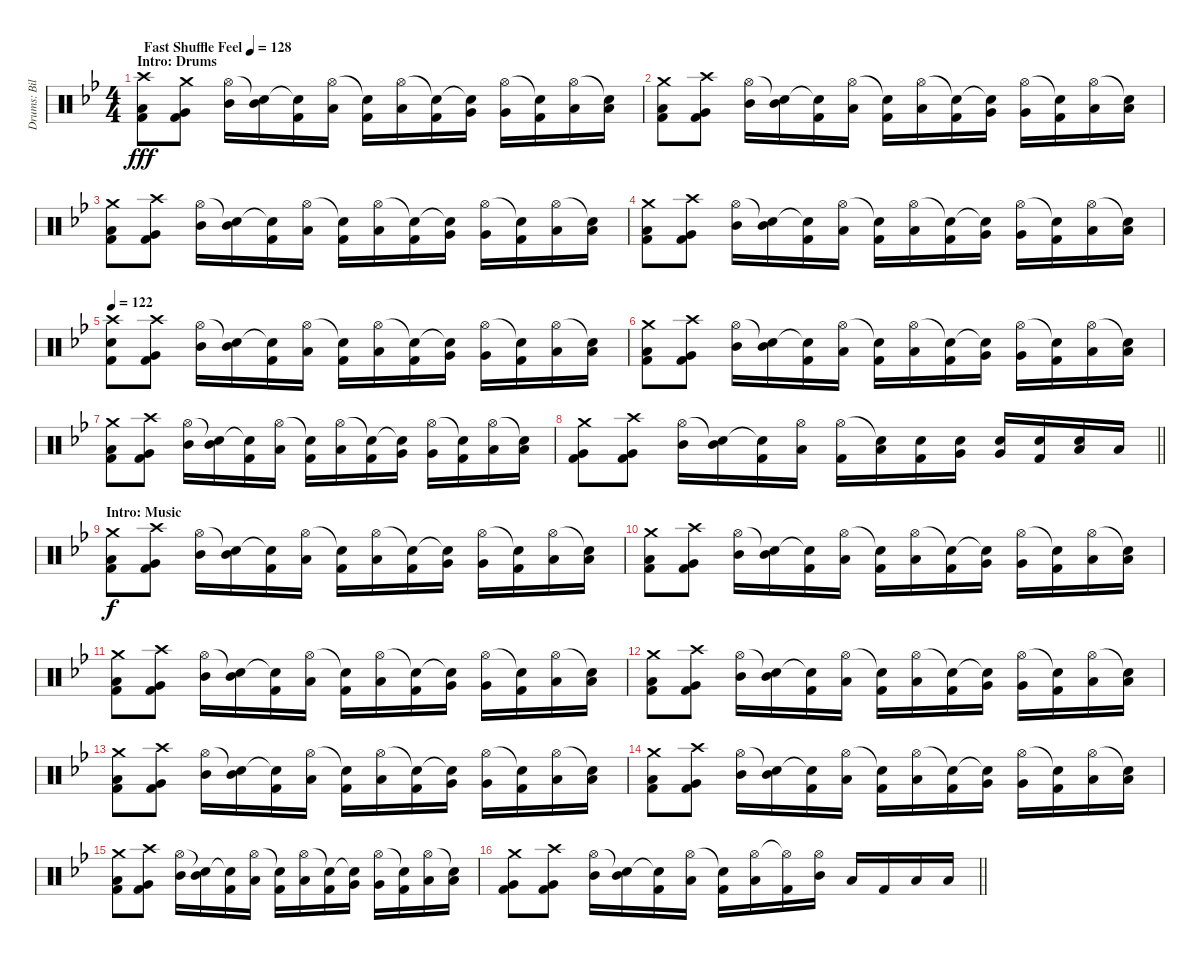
\track ("Drums: Bill" "Drums: Bil") {instrument percussion}
\staff {score}
\articulation defaults
\ts (4 4)
\section ("" "Intro: Drums")
\tempo (128 "Fast Shuffle Feel")
\clef neutral
\ks bb
("Crash high (hit)" "Low Tom (hit)" "Kick (hit) 2").8{dy fff} ("Crash medium (hit)" "Very Low Tom (hit)" "Kick (hit) 2").8 ("Hi-Hat (open)" "Mid Tom (hit)").16 ("Snare (hit)"{t} "Mid Tom (hit)").16 ("Snare (hit)"{t} "Kick (hit) 2").16 ("Hi-Hat (open)" "Low Tom (hit)").16 ("Snare (hit)"{t} "Kick (hit) 2").16 ("Hi-Hat (open)" "Low Tom (hit)").16 ("Snare (hit)"{t} "Kick (hit) 2").16 ("Snare (hit)"{t} "Very Low Tom (hit)").16 ("Hi-Hat (open)" "Very Low Tom (hit)").16 ("Snare (hit)"{t} "Kick (hit) 2").16 ("Hi-Hat (open)" "Low Floor Tom (hit)").16 ("Snare (hit)"{t} "Low Floor Tom (hit)").16 |
("Crash medium (hit)" "Low Tom (hit)" "Kick (hit) 2").8 ("Crash high (hit)" "Very Low Tom (hit)" "Kick (hit) 2").8 ("Hi-Hat (open)" "Mid Tom (hit)").16 ("Snare (hit)"{t} "Mid Tom (hit)").16 ("Snare (hit)"{t} "Kick (hit) 2").16 ("Hi-Hat (open)" "Low Tom (hit)").16 ("Snare (hit)"{t} "Kick (hit) 2").16 ("Hi-Hat (open)" "Low Tom (hit)").16 ("Snare (hit)"{t} "Kick (hit) 2").16 ("Snare (hit)"{t} "Very Low Tom (hit)").16 ("Hi-Hat (open)" "Very Low Tom (hit)").16 ("Snare (hit)"{t} "Kick (hit) 2").16 ("Hi-Hat (open)" "Low Floor Tom (hit)").16 ("Snare (hit)"{t} "Low Floor Tom (hit)").16 |
("Crash medium (hit)" "Low Tom (hit)" "Kick (hit) 2").8 ("Crash high (hit)" "Very Low Tom (hit)" "Kick (hit) 2").8 ("Hi-Hat (open)" "Mid Tom (hit)").16 ("Snare (hit)"{t} "Mid Tom (hit)").16 ("Snare (hit)"{t} "Kick (hit) 2").16 ("Hi-Hat (open)" "Low Tom (hit)").16 ("Snare (hit)"{t} "Kick (hit) 2").16 ("Hi-Hat (open)" "Low Tom (hit)").16 ("Snare (hit)"{t} "Kick (hit) 2").16 ("Snare (hit)"{t} "Very Low Tom (hit)").16 ("Hi-Hat (open)" "Very Low Tom (hit)").16 ("Snare (hit)"{t} "Kick (hit) 2").16 ("Hi-Hat (open)" "Low Floor Tom (hit)").16 ("Snare (hit)"{t} "Low Floor Tom (hit)").16 |
("Crash medium (hit)" "Low Tom (hit)" "Kick (hit) 2").8 ("Crash high (hit)" "Very Low Tom (hit)" "Kick (hit) 2").8 ("Hi-Hat (open)" "Mid Tom (hit)").16 ("Snare (hit)"{t} "Mid Tom (hit)").16 ("Snare (hit)"{t} "Kick (hit) 2").16 ("Hi-Hat (open)" "Low Tom (hit)").16 ("Snare (hit)"{t} "Kick (hit) 2").16 ("Hi-Hat (open)" "Low Tom (hit)").16 ("Snare (hit)"{t} "Kick (hit) 2").16 ("Snare (hit)"{t} "Very Low Tom (hit)").16 ("Hi-Hat (open)" "Very Low Tom (hit)").16 ("Snare (hit)"{t} "Kick (hit) 2").16 ("Hi-Hat (open)" "Low Floor Tom (hit)").16 ("Snare (hit)"{t} "Low Floor Tom (hit)").16 |
\tempo 122
("Crash high (hit)" "Electric Snare (hit)" "Kick (hit) 2").8 ("Crash high (hit)" "Very Low Tom (hit)" "Kick (hit) 2").8 ("Hi-Hat (open)" "Mid Tom (hit)").16 ("Snare (hit)"{t} "Mid Tom (hit)").16 ("Snare (hit)"{t} "Kick (hit) 2").16 ("Hi-Hat (open)" "Low Tom (hit)").16 ("Snare (hit)"{t} "Kick (hit) 2").16 ("Hi-Hat (open)" "Low Tom (hit)").16 ("Snare (hit)"{t} "Kick (hit) 2").16 ("Snare (hit)"{t} "Very Low Tom (hit)").16 ("Hi-Hat (open)" "Very Low Tom (hit)").16 ("Snare (hit)"{t} "Kick (hit) 2").16 ("Hi-Hat (open)" "Low Floor Tom (hit)").16 ("Snare (hit)"{t} "Low Floor Tom (hit)").16 |
("Crash medium (hit)" "Low Tom (hit)" "Kick (hit) 2").8 ("Crash high (hit)" "Very Low Tom (hit)" "Kick (hit) 2").8 ("Hi-Hat (open)" "Mid Tom (hit)").16 ("Snare (hit)"{t} "Mid Tom (hit)").16 ("Snare (hit)"{t} "Kick (hit) 2").16 ("Hi-Hat (open)" "Low Tom (hit)").16 ("Snare (hit)"{t} "Kick (hit) 2").16 ("Hi-Hat (open)" "Low Tom (hit)").16 ("Snare (hit)"{t} "Kick (hit) 2").16 ("Snare (hit)"{t} "Very Low Tom (hit)").16 ("Hi-Hat (open)" "Very Low Tom (hit)").16 ("Snare (hit)"{t} "Kick (hit) 2").16 ("Hi-Hat (open)" "Low Floor Tom (hit)").16 ("Snare (hit)"{t} "Low Floor Tom (hit)").16 |
("Crash medium (hit)" "Low Tom (hit)" "Kick (hit) 2").8 ("Crash high (hit)" "Very Low Tom (hit)" "Kick (hit) 2").8 ("Hi-Hat (open)" "Mid Tom (hit)").16 ("Snare (hit)"{t} "Mid Tom (hit)").16 ("Snare (hit)"{t} "Kick (hit) 2").16 ("Hi-Hat (open)" "Low Tom (hit)").16 ("Snare (hit)"{t} "Kick (hit) 2").16 ("Hi-Hat (open)" "Low Tom (hit)").16 ("Snare (hit)"{t} "Kick (hit) 2").16 ("Snare (hit)"{t} "Very Low Tom (hit)").16 ("Hi-Hat (open)" "Very Low Tom (hit)").16 ("Snare (hit)"{t} "Kick (hit) 2").16 ("Hi-Hat (open)" "Low Floor Tom (hit)").16 ("Snare (hit)"{t} "Low Floor Tom (hit)").16 |
\barLineRight lightlight
("Crash medium (hit)" "Very Low Tom (hit)" "Kick (hit) 2").8 ("Crash high (hit)" "Very Low Tom (hit)" "Kick (hit) 2").8 ("Hi-Hat (open)" "Mid Tom (hit)").16 ("Snare (hit)"{t} "Mid Tom (hit)").16 ("Snare (hit)"{t} "Kick (hit) 2").16 ("Hi-Hat (open)" "Low Tom (hit)").16 ("Hi-Hat (open)" "Kick (hit) 2").16 ("Snare (hit)"{t} "Low Tom (hit)").16 ("Electric Snare (hit)" "Kick (hit) 2").16 ("Electric Snare (hit)" "Very Low Tom (hit)").16 ("Electric Snare (hit)" "Very Low Tom (hit)").16 ("Electric Snare (hit)" "Kick (hit) 2").16 ("Electric Snare (hit)" "Low Floor Tom (hit)").16 "Low Floor Tom (hit)".16 |
\section ("" "Intro: Music")
("Crash medium (hit)" "Low Tom (hit)" "Kick (hit) 2").8{dy f} ("Crash high (hit)" "Very Low Tom (hit)" "Kick (hit) 2").8 ("Hi-Hat (open)" "Mid Tom (hit)").16 ("Snare (hit)"{t} "Mid Tom (hit)").16 ("Snare (hit)"{t} "Kick (hit) 2").16 ("Hi-Hat (open)" "Low Tom (hit)").16 ("Snare (hit)"{t} "Kick (hit) 2").16 ("Hi-Hat (open)" "Low Tom (hit)").16 ("Snare (hit)"{t} "Kick (hit) 2").16 ("Snare (hit)"{t} "Very Low Tom (hit)").16 ("Hi-Hat (open)" "Very Low Tom (hit)").16 ("Snare (hit)"{t} "Kick (hit) 2").16 ("Hi-Hat (open)" "Low Floor Tom (hit)").16 ("Snare (hit)"{t} "Low Floor Tom (hit)").16 |
("Crash medium (hit)" "Low Tom (hit)" "Kick (hit) 2").8 ("Crash high (hit)" "Very Low Tom (hit)" "Kick (hit) 2").8 ("Hi-Hat (open)" "Mid Tom (hit)").16 ("Snare (hit)"{t} "Mid Tom (hit)").16 ("Snare (hit)"{t} "Kick (hit) 2").16 ("Hi-Hat (open)" "Low Tom (hit)").16 ("Snare (hit)"{t} "Kick (hit) 2").16 ("Hi-Hat (open)" "Low Tom (hit)").16 ("Snare (hit)"{t} "Kick (hit) 2").16 ("Snare (hit)"{t} "Very Low Tom (hit)").16 ("Hi-Hat (open)" "Very Low Tom (hit)").16 ("Snare (hit)"{t} "Kick (hit) 2").16 ("Hi-Hat (open)" "Low Floor Tom (hit)").16 ("Snare (hit)"{t} "Low Floor Tom (hit)").16 |
("Crash medium (hit)" "Low Tom (hit)" "Kick (hit) 2").8 ("Crash high (hit)" "Very Low Tom (hit)" "Kick (hit) 2").8 ("Hi-Hat (open)" "Mid Tom (hit)").16 ("Snare (hit)"{t} "Mid Tom (hit)").16 ("Snare (hit)"{t} "Kick (hit) 2").16 ("Hi-Hat (open)" "Low Tom (hit)").16 ("Snare (hit)"{t} "Kick (hit) 2").16 ("Hi-Hat (open)" "Low Tom (hit)").16 ("Snare (hit)"{t} "Kick (hit) 2").16 ("Snare (hit)"{t} "Very Low Tom (hit)").16 ("Hi-Hat (open)" "Very Low Tom (hit)").16 ("Snare (hit)"{t} "Kick (hit) 2").16 ("Hi-Hat (open)" "Low Floor Tom (hit)").16 ("Snare (hit)"{t} "Low Floor Tom (hit)").16 |
("Crash medium (hit)" "Low Tom (hit)" "Kick (hit) 2").8 ("Crash high (hit)" "Very Low Tom (hit)" "Kick (hit) 2").8 ("Hi-Hat (open)" "Mid Tom (hit)").16 ("Snare (hit)"{t} "Mid Tom (hit)").16 ("Snare (hit)"{t} "Kick (hit) 2").16 ("Hi-Hat (open)" "Low Tom (hit)").16 ("Snare (hit)"{t} "Kick (hit) 2").16 ("Hi-Hat (open)" "Low Tom (hit)").16 ("Snare (hit)"{t} "Kick (hit) 2").16 ("Snare (hit)"{t} "Very Low Tom (hit)").16 ("Hi-Hat (open)" "Very Low Tom (hit)").16 ("Snare (hit)"{t} "Kick (hit) 2").16 ("Hi-Hat (open)" "Low Floor Tom (hit)").16 ("Snare (hit)"{t} "Low Floor Tom (hit)").16 |
("Crash medium (hit)" "Low Tom (hit)" "Kick (hit) 2").8 ("Crash high (hit)" "Very Low Tom (hit)" "Kick (hit) 2").8 ("Hi-Hat (open)" "Mid Tom (hit)").16 ("Snare (hit)"{t} "Mid Tom (hit)").16 ("Snare (hit)"{t} "Kick (hit) 2").16 ("Hi-Hat (open)" "Low Tom (hit)").16 ("Snare (hit)"{t} "Kick (hit) 2").16 ("Hi-Hat (open)" "Low Tom (hit)").16 ("Snare (hit)"{t} "Kick (hit) 2").16 ("Snare (hit)"{t} "Very Low Tom (hit)").16 ("Hi-Hat (open)" "Very Low Tom (hit)").16 ("Snare (hit)"{t} "Kick (hit) 2").16 ("Hi-Hat (open)" "Low Floor Tom (hit)").16 ("Snare (hit)"{t} "Low Floor Tom (hit)").16 |
("Crash medium (hit)" "Low Tom (hit)" "Kick (hit) 2").8 ("Crash high (hit)" "Very Low Tom (hit)" "Kick (hit) 2").8 ("Hi-Hat (open)" "Mid Tom (hit)").16 ("Snare (hit)"{t} "Mid Tom (hit)").16 ("Snare (hit)"{t} "Kick (hit) 2").16 ("Hi-Hat (open)" "Low Tom (hit)").16 ("Snare (hit)"{t} "Kick (hit) 2").16 ("Hi-Hat (open)" "Low Tom (hit)").16 ("Snare (hit)"{t} "Kick (hit) 2").16 ("Snare (hit)"{t} "Very Low Tom (hit)").16 ("Hi-Hat (open)" "Very Low Tom (hit)").16 ("Snare (hit)"{t} "Kick (hit) 2").16 ("Hi-Hat (open)" "Low Floor Tom (hit)").16 ("Snare (hit)"{t} "Low Floor Tom (hit)").16 |
("Crash medium (hit)" "Low Tom (hit)" "Kick (hit) 2").8 ("Crash high (hit)" "Very Low Tom (hit)" "Kick (hit) 2").8 ("Hi-Hat (open)" "Mid Tom (hit)").16 ("Snare (hit)"{t} "Mid Tom (hit)").16 ("Snare (hit)"{t} "Kick (hit) 2").16 ("Hi-Hat (open)" "Low Tom (hit)").16 ("Snare (hit)"{t} "Kick (hit) 2").16 ("Hi-Hat (open)" "Low Tom (hit)").16 ("Snare (hit)"{t} "Kick (hit) 2").16 ("Snare (hit)"{t} "Very Low Tom (hit)").16 ("Hi-Hat (open)" "Very Low Tom (hit)").16 ("Snare (hit)"{t} "Kick (hit) 2").16 ("Hi-Hat (open)" "Low Floor Tom (hit)").16 ("Snare (hit)"{t} "Low Floor Tom (hit)").16 |
\barLineRight lightlight
("Crash medium (hit)" "Very Low Tom (hit)" "Kick (hit) 2").8 ("Crash high (hit)" "Very Low Tom (hit)" "Kick (hit) 2").8 ("Hi-Hat (open)" "Mid Tom (hit)").16 ("Snare (hit)"{t} "Mid Tom (hit)").16 ("Snare (hit)"{t} "Kick (hit) 2").16 ("Hi-Hat (open)" "Low Tom (hit)").16 ("Snare (hit)"{t} "Kick (hit) 2").16 ("Hi-Hat (open)" "Low Tom (hit)").16 ("Hi-Hat (open)"{t} "Kick (hit) 2").16 ("Hi-Hat (open)" "Mid Tom (hit)").16 "Low Tom (hit)".16 "Kick (hit) 2".16 "Low Tom (hit)".16 "Low Tom (hit)".16
